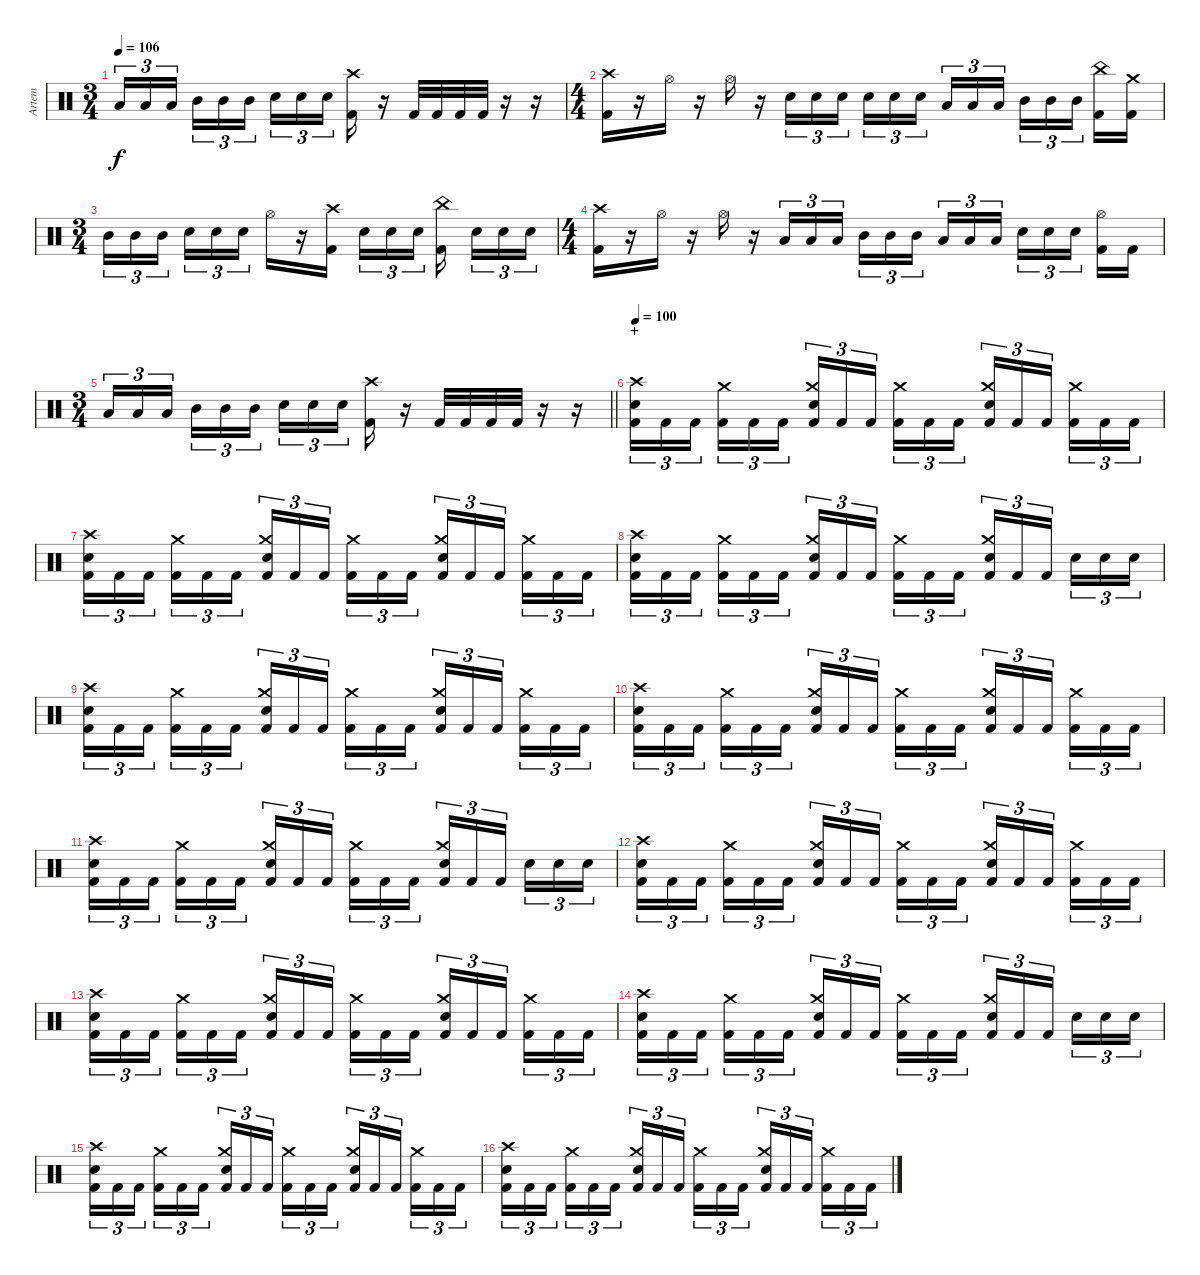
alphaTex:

\track ("Artem" "Artem") {instrument percussion}
\staff {score}
\articulation defaults
\ts (3 4)
\tempo 106
\clef neutral
\ks c "Low Tom (hit)".16{tu (3 2) dy f} "Low Tom (hit)".16{tu (3 2)} "Low Tom (hit)".16{tu (3 2) beam splitsecondary} "Mid Tom (hit)".16{tu (3 2)} "Mid Tom (hit)".16{tu (3 2)} "Mid Tom (hit)".16{tu (3 2)} "Snare (hit) 2".16{tu (3 2)} "Snare (hit) 2".16{tu (3 2)} "Snare (hit) 2".16{tu (3 2) beam splitsecondary}
("Crash high (hit)" "Kick (hit) 2").16 r.16 "Kick (hit) 2".32 "Kick (hit) 2".32 "Kick (hit) 2".32 "Kick (hit) 2".32 r.16 r.16 |
\ts (4 4)
("Crash high (hit)" "Kick (hit) 2").16 r.16 "Hi-Hat (open)".16 r.16 "Hi-Hat (open)".16 r.16 "Snare (hit) 2".16{tu (3 2)} "Snare (hit) 2".16{tu (3 2)} "Snare (hit) 2".16{tu (3 2)} "Snare (hit) 2".16{tu (3 2)} "Snare (hit) 2".16{tu (3 2)} "Snare (hit) 2".16{tu (3 2) beam splitsecondary} "Low Tom (hit)".16{tu (3 2)} "Low Tom (hit)".16{tu (3 2)} "Low Tom (hit)".16{tu (3 2)} "Mid Tom (hit)".16{tu (3 2)} "Mid Tom (hit)".16{tu (3 2)} "Mid Tom (hit)".16{tu (3 2) beam splitsecondary} ("China (hit)" "Kick (hit) 2").16 ("Crash medium (hit)" "Kick (hit) 2").16 |
\ts (3 4)
"Mid Tom (hit)".16{tu (3 2)} "Mid Tom (hit)".16{tu (3 2)} "Mid Tom (hit)".16{tu (3 2) beam splitsecondary} "Snare (hit) 2".16{tu (3 2)} "Snare (hit) 2".16{tu (3 2)} "Snare (hit) 2".16{tu (3 2)} "Hi-Hat (open)".16 r.16 ("Crash high (hit)" "Kick (hit) 2").16{beam splitsecondary} "Snare (hit) 2".16{tu (3 2)} "Snare (hit) 2".16{tu (3 2)} "Snare (hit) 2".16{tu (3 2) beam splitsecondary} ("Kick (hit) 2" "China (hit)").16{beam splitsecondary} "Snare (hit) 2".16{tu (3 2)} "Snare (hit) 2".16{tu (3 2)} "Snare (hit) 2".16{tu (3 2)} |
\ts (4 4)
("Crash high (hit)" "Kick (hit) 2").16 r.16 "Hi-Hat (open)".16 r.16 "Hi-Hat (open)".16 r.16 "Low Tom (hit)".16{tu (3 2)} "Low Tom (hit)".16{tu (3 2)} "Low Tom (hit)".16{tu (3 2)} "Mid Tom (hit)".16{tu (3 2)} "Mid Tom (hit)".16{tu (3 2)} "Mid Tom (hit)".16{tu (3 2) beam splitsecondary} "Low Tom (hit)".16{tu (3 2)} "Low Tom (hit)".16{tu (3 2)} "Low Tom (hit)".16{tu (3 2)} "Snare (hit) 2".16{tu (3 2)} "Snare (hit) 2".16{tu (3 2)} "Snare (hit) 2".16{tu (3 2) beam splitsecondary} ("Hi-Hat (open)" "Kick (hit) 2").16 "Kick (hit) 2".16 |
\ts (3 4)
\barLineRight lightlight "Low Tom (hit)".16{tu (3 2)} "Low Tom (hit)".16{tu (3 2)} "Low Tom (hit)".16{tu (3 2) beam splitsecondary} "Mid Tom (hit)".16{tu (3 2)} "Mid Tom (hit)".16{tu (3 2)} "Mid Tom (hit)".16{tu (3 2)} "Snare (hit) 2".16{tu (3 2)} "Snare (hit) 2".16{tu (3 2)} "Snare (hit) 2".16{tu (3 2) beam splitsecondary}
("Crash high (hit)" "Kick (hit) 2").16 r.16 "Kick (hit) 2".32 "Kick (hit) 2".32 "Kick (hit) 2".32 "Kick (hit) 2".32 r.16 r.16 |
\section ("" "+")
\tempo 100
("Kick (hit) 2" "Crash high (hit)" "Electric Snare (hit)").16{tu (3 2)} "Kick (hit) 2".16{tu (3 2)} "Kick (hit) 2".16{tu (3 2) beam splitsecondary} ("Kick (hit) 2" "Crash medium (hit)").16{tu (3 2)} "Kick (hit) 2".16{tu (3 2)} "Kick (hit) 2".16{tu (3 2)} ("Kick (hit) 2" "Crash medium (hit)" "Electric Snare (hit)").16{tu (3 2)} "Kick (hit) 2".16{tu (3 2)} "Kick (hit) 2".16{tu (3 2) beam splitsecondary} ("Kick (hit) 2" "Crash medium (hit)").16{tu (3 2)} "Kick (hit) 2".16{tu (3 2)} "Kick (hit) 2".16{tu (3 2)} ("Kick (hit) 2" "Crash medium (hit)" "Electric Snare (hit)").16{tu (3 2)} "Kick (hit) 2".16{tu (3 2)} "Kick (hit) 2".16{tu (3 2) beam splitsecondary} ("Kick (hit) 2" "Crash medium (hit)").16{tu (3 2)} "Kick (hit) 2".16{tu (3 2)} "Kick (hit) 2".16{tu (3 2)} |
("Kick (hit) 2" "Crash high (hit)" "Electric Snare (hit)").16{tu (3 2)} "Kick (hit) 2".16{tu (3 2)} "Kick (hit) 2".16{tu (3 2) beam splitsecondary} ("Kick (hit) 2" "Crash medium (hit)").16{tu (3 2)} "Kick (hit) 2".16{tu (3 2)} "Kick (hit) 2".16{tu (3 2)} ("Kick (hit) 2" "Crash medium (hit)" "Electric Snare (hit)").16{tu (3 2)} "Kick (hit) 2".16{tu (3 2)} "Kick (hit) 2".16{tu (3 2) beam splitsecondary} ("Kick (hit) 2" "Crash medium (hit)").16{tu (3 2)} "Kick (hit) 2".16{tu (3 2)} "Kick (hit) 2".16{tu (3 2)} ("Kick (hit) 2" "Crash medium (hit)" "Electric Snare (hit)").16{tu (3 2)} "Kick (hit) 2".16{tu (3 2)} "Kick (hit) 2".16{tu (3 2) beam splitsecondary} ("Kick (hit) 2" "Crash medium (hit)").16{tu (3 2)} "Kick (hit) 2".16{tu (3 2)} "Kick (hit) 2".16{tu (3 2)} |
("Kick (hit) 2" "Crash high (hit)" "Electric Snare (hit)").16{tu (3 2)} "Kick (hit) 2".16{tu (3 2)} "Kick (hit) 2".16{tu (3 2) beam splitsecondary} ("Kick (hit) 2" "Crash medium (hit)").16{tu (3 2)} "Kick (hit) 2".16{tu (3 2)} "Kick (hit) 2".16{tu (3 2)} ("Kick (hit) 2" "Crash medium (hit)" "Electric Snare (hit)").16{tu (3 2)} "Kick (hit) 2".16{tu (3 2)} "Kick (hit) 2".16{tu (3 2) beam splitsecondary} ("Kick (hit) 2" "Crash medium (hit)").16{tu (3 2)} "Kick (hit) 2".16{tu (3 2)} "Kick (hit) 2".16{tu (3 2)} ("Kick (hit) 2" "Crash medium (hit)" "Electric Snare (hit)").16{tu (3 2)} "Kick (hit) 2".16{tu (3 2)} "Kick (hit) 2".16{tu (3 2) beam splitsecondary} "Electric Snare (hit)".16{tu (3 2)} "Electric Snare (hit)".16{tu (3 2)} "Electric Snare (hit)".16{tu (3 2)} |
("Kick (hit) 2" "Crash high (hit)" "Electric Snare (hit)").16{tu (3 2)} "Kick (hit) 2".16{tu (3 2)} "Kick (hit) 2".16{tu (3 2) beam splitsecondary} ("Kick (hit) 2" "Crash medium (hit)").16{tu (3 2)} "Kick (hit) 2".16{tu (3 2)} "Kick (hit) 2".16{tu (3 2)} ("Kick (hit) 2" "Crash medium (hit)" "Electric Snare (hit)").16{tu (3 2)} "Kick (hit) 2".16{tu (3 2)} "Kick (hit) 2".16{tu (3 2) beam splitsecondary} ("Kick (hit) 2" "Crash medium (hit)").16{tu (3 2)} "Kick (hit) 2".16{tu (3 2)} "Kick (hit) 2".16{tu (3 2)} ("Kick (hit) 2" "Crash medium (hit)" "Electric Snare (hit)").16{tu (3 2)} "Kick (hit) 2".16{tu (3 2)} "Kick (hit) 2".16{tu (3 2) beam splitsecondary} ("Kick (hit) 2" "Crash medium (hit)").16{tu (3 2)} "Kick (hit) 2".16{tu (3 2)} "Kick (hit) 2".16{tu (3 2)} |
("Kick (hit) 2" "Crash high (hit)" "Electric Snare (hit)").16{tu (3 2)} "Kick (hit) 2".16{tu (3 2)} "Kick (hit) 2".16{tu (3 2) beam splitsecondary} ("Kick (hit) 2" "Crash medium (hit)").16{tu (3 2)} "Kick (hit) 2".16{tu (3 2)} "Kick (hit) 2".16{tu (3 2)} ("Kick (hit) 2" "Crash medium (hit)" "Electric Snare (hit)").16{tu (3 2)} "Kick (hit) 2".16{tu (3 2)} "Kick (hit) 2".16{tu (3 2) beam splitsecondary} ("Kick (hit) 2" "Crash medium (hit)").16{tu (3 2)} "Kick (hit) 2".16{tu (3 2)} "Kick (hit) 2".16{tu (3 2)} ("Kick (hit) 2" "Crash medium (hit)" "Electric Snare (hit)").16{tu (3 2)} "Kick (hit) 2".16{tu (3 2)} "Kick (hit) 2".16{tu (3 2) beam splitsecondary} ("Kick (hit) 2" "Crash medium (hit)").16{tu (3 2)} "Kick (hit) 2".16{tu (3 2)} "Kick (hit) 2".16{tu (3 2)} |
("Kick (hit) 2" "Crash high (hit)" "Electric Snare (hit)").16{tu (3 2)} "Kick (hit) 2".16{tu (3 2)} "Kick (hit) 2".16{tu (3 2) beam splitsecondary} ("Kick (hit) 2" "Crash medium (hit)").16{tu (3 2)} "Kick (hit) 2".16{tu (3 2)} "Kick (hit) 2".16{tu (3 2)} ("Kick (hit) 2" "Crash medium (hit)" "Electric Snare (hit)").16{tu (3 2)} "Kick (hit) 2".16{tu (3 2)} "Kick (hit) 2".16{tu (3 2) beam splitsecondary} ("Kick (hit) 2" "Crash medium (hit)").16{tu (3 2)} "Kick (hit) 2".16{tu (3 2)} "Kick (hit) 2".16{tu (3 2)} ("Kick (hit) 2" "Crash medium (hit)" "Electric Snare (hit)").16{tu (3 2)} "Kick (hit) 2".16{tu (3 2)} "Kick (hit) 2".16{tu (3 2) beam splitsecondary} "Electric Snare (hit)".16{tu (3 2)} "Electric Snare (hit)".16{tu (3 2)} "Electric Snare (hit)".16{tu (3 2)} |
("Kick (hit) 2" "Crash high (hit)" "Electric Snare (hit)").16{tu (3 2)} "Kick (hit) 2".16{tu (3 2)} "Kick (hit) 2".16{tu (3 2) beam splitsecondary} ("Kick (hit) 2" "Crash medium (hit)").16{tu (3 2)} "Kick (hit) 2".16{tu (3 2)} "Kick (hit) 2".16{tu (3 2)} ("Kick (hit) 2" "Crash medium (hit)" "Electric Snare (hit)").16{tu (3 2)} "Kick (hit) 2".16{tu (3 2)} "Kick (hit) 2".16{tu (3 2) beam splitsecondary} ("Kick (hit) 2" "Crash medium (hit)").16{tu (3 2)} "Kick (hit) 2".16{tu (3 2)} "Kick (hit) 2".16{tu (3 2)} ("Kick (hit) 2" "Crash medium (hit)" "Electric Snare (hit)").16{tu (3 2)} "Kick (hit) 2".16{tu (3 2)} "Kick (hit) 2".16{tu (3 2) beam splitsecondary} ("Kick (hit) 2" "Crash medium (hit)").16{tu (3 2)} "Kick (hit) 2".16{tu (3 2)} "Kick (hit) 2".16{tu (3 2)} |
("Kick (hit) 2" "Crash high (hit)" "Electric Snare (hit)").16{tu (3 2)} "Kick (hit) 2".16{tu (3 2)} "Kick (hit) 2".16{tu (3 2) beam splitsecondary} ("Kick (hit) 2" "Crash medium (hit)").16{tu (3 2)} "Kick (hit) 2".16{tu (3 2)} "Kick (hit) 2".16{tu (3 2)} ("Kick (hit) 2" "Crash medium (hit)" "Electric Snare (hit)").16{tu (3 2)} "Kick (hit) 2".16{tu (3 2)} "Kick (hit) 2".16{tu (3 2) beam splitsecondary} ("Kick (hit) 2" "Crash medium (hit)").16{tu (3 2)} "Kick (hit) 2".16{tu (3 2)} "Kick (hit) 2".16{tu (3 2)} ("Kick (hit) 2" "Crash medium (hit)" "Electric Snare (hit)").16{tu (3 2)} "Kick (hit) 2".16{tu (3 2)} "Kick (hit) 2".16{tu (3 2) beam splitsecondary} ("Kick (hit) 2" "Crash medium (hit)").16{tu (3 2)} "Kick (hit) 2".16{tu (3 2)} "Kick (hit) 2".16{tu (3 2)} |
("Kick (hit) 2" "Crash high (hit)" "Electric Snare (hit)").16{tu (3 2)} "Kick (hit) 2".16{tu (3 2)} "Kick (hit) 2".16{tu (3 2) beam splitsecondary} ("Kick (hit) 2" "Crash medium (hit)").16{tu (3 2)} "Kick (hit) 2".16{tu (3 2)} "Kick (hit) 2".16{tu (3 2)} ("Kick (hit) 2" "Crash medium (hit)" "Electric Snare (hit)").16{tu (3 2)} "Kick (hit) 2".16{tu (3 2)} "Kick (hit) 2".16{tu (3 2) beam splitsecondary} ("Kick (hit) 2" "Crash medium (hit)").16{tu (3 2)} "Kick (hit) 2".16{tu (3 2)} "Kick (hit) 2".16{tu (3 2)} ("Kick (hit) 2" "Crash medium (hit)" "Electric Snare (hit)").16{tu (3 2)} "Kick (hit) 2".16{tu (3 2)} "Kick (hit) 2".16{tu (3 2) beam splitsecondary} "Electric Snare (hit)".16{tu (3 2)} "Electric Snare (hit)".16{tu (3 2)} "Electric Snare (hit)".16{tu (3 2)} |
("Kick (hit) 2" "Crash high (hit)" "Electric Snare (hit)").16{tu (3 2)} "Kick (hit) 2".16{tu (3 2)} "Kick (hit) 2".16{tu (3 2) beam splitsecondary} ("Kick (hit) 2" "Crash medium (hit)").16{tu (3 2)} "Kick (hit) 2".16{tu (3 2)} "Kick (hit) 2".16{tu (3 2)} ("Kick (hit) 2" "Crash medium (hit)" "Electric Snare (hit)").16{tu (3 2)} "Kick (hit) 2".16{tu (3 2)} "Kick (hit) 2".16{tu (3 2) beam splitsecondary} ("Kick (hit) 2" "Crash medium (hit)").16{tu (3 2)} "Kick (hit) 2".16{tu (3 2)} "Kick (hit) 2".16{tu (3 2)} ("Kick (hit) 2" "Crash medium (hit)" "Electric Snare (hit)").16{tu (3 2)} "Kick (hit) 2".16{tu (3 2)} "Kick (hit) 2".16{tu (3 2) beam splitsecondary} ("Kick (hit) 2" "Crash medium (hit)").16{tu (3 2)} "Kick (hit) 2".16{tu (3 2)} "Kick (hit) 2".16{tu (3 2)} |
("Kick (hit) 2" "Crash high (hit)" "Electric Snare (hit)").16{tu (3 2)} "Kick (hit) 2".16{tu (3 2)} "Kick (hit) 2".16{tu (3 2) beam splitsecondary} ("Kick (hit) 2" "Crash medium (hit)").16{tu (3 2)} "Kick (hit) 2".16{tu (3 2)} "Kick (hit) 2".16{tu (3 2)} ("Kick (hit) 2" "Crash medium (hit)" "Electric Snare (hit)").16{tu (3 2)} "Kick (hit) 2".16{tu (3 2)} "Kick (hit) 2".16{tu (3 2) beam splitsecondary} ("Kick (hit) 2" "Crash medium (hit)").16{tu (3 2)} "Kick (hit) 2".16{tu (3 2)} "Kick (hit) 2".16{tu (3 2)} ("Kick (hit) 2" "Crash medium (hit)" "Electric Snare (hit)").16{tu (3 2)} "Kick (hit) 2".16{tu (3 2)} "Kick (hit) 2".16{tu (3 2) beam splitsecondary} ("Kick (hit) 2" "Crash medium (hit)").16{tu (3 2)} "Kick (hit) 2".16{tu (3 2)} "Kick (hit) 2".16{tu (3 2)}
